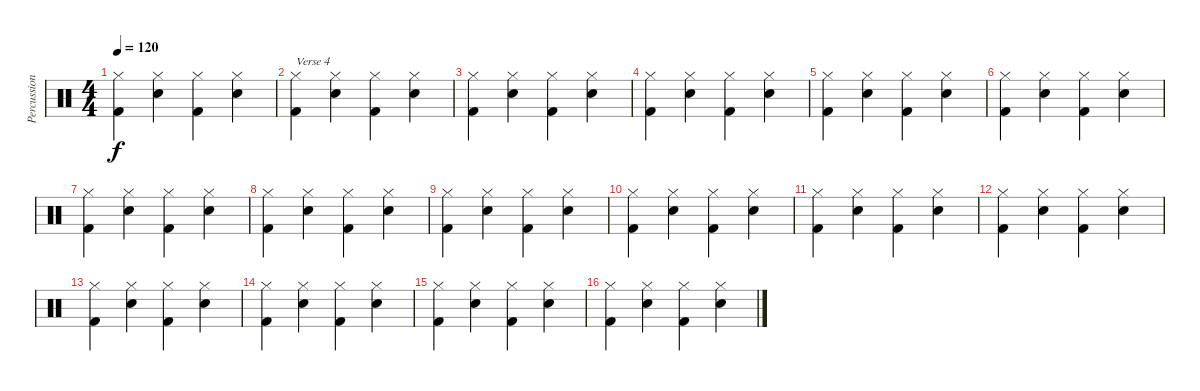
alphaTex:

\track ("Percussions" "Percussion") {instrument percussion}
\staff {score}
\articulation defaults
\ts (4 4)
\tempo 120
\clef neutral
\ks c
("Hi-Hat (closed)" "Kick (hit) 2").4{dy f} ("Hi-Hat (closed)" "Electric Snare (hit)").4 ("Hi-Hat (closed)" "Kick (hit) 2").4 ("Hi-Hat (closed)" "Electric Snare (hit)").4 |
("Hi-Hat (closed)" "Kick (hit) 2").4{txt "Verse 4"} ("Hi-Hat (closed)" "Electric Snare (hit)").4 ("Hi-Hat (closed)" "Kick (hit) 2").4 ("Hi-Hat (closed)" "Electric Snare (hit)").4 |
("Hi-Hat (closed)" "Kick (hit) 2").4 ("Hi-Hat (closed)" "Electric Snare (hit)").4 ("Hi-Hat (closed)" "Kick (hit) 2").4 ("Hi-Hat (closed)" "Electric Snare (hit)").4 |
("Hi-Hat (closed)" "Kick (hit) 2").4 ("Hi-Hat (closed)" "Electric Snare (hit)").4 ("Hi-Hat (closed)" "Kick (hit) 2").4 ("Hi-Hat (closed)" "Electric Snare (hit)").4 |
("Hi-Hat (closed)" "Kick (hit) 2").4 ("Hi-Hat (closed)" "Electric Snare (hit)").4 ("Hi-Hat (closed)" "Kick (hit) 2").4 ("Hi-Hat (closed)" "Electric Snare (hit)").4 |
("Hi-Hat (closed)" "Kick (hit) 2").4 ("Hi-Hat (closed)" "Electric Snare (hit)").4 ("Hi-Hat (closed)" "Kick (hit) 2").4 ("Hi-Hat (closed)" "Electric Snare (hit)").4 |
("Hi-Hat (closed)" "Kick (hit) 2").4 ("Hi-Hat (closed)" "Electric Snare (hit)").4 ("Hi-Hat (closed)" "Kick (hit) 2").4 ("Hi-Hat (closed)" "Electric Snare (hit)").4 |
("Hi-Hat (closed)" "Kick (hit) 2").4 ("Hi-Hat (closed)" "Electric Snare (hit)").4 ("Hi-Hat (closed)" "Kick (hit) 2").4 ("Hi-Hat (closed)" "Electric Snare (hit)").4 |
("Hi-Hat (closed)" "Kick (hit) 2").4 ("Hi-Hat (closed)" "Electric Snare (hit)").4 ("Hi-Hat (closed)" "Kick (hit) 2").4 ("Hi-Hat (closed)" "Electric Snare (hit)").4 |
("Hi-Hat (closed)" "Kick (hit) 2").4 ("Hi-Hat (closed)" "Electric Snare (hit)").4 ("Hi-Hat (closed)" "Kick (hit) 2").4 ("Hi-Hat (closed)" "Electric Snare (hit)").4 |
("Hi-Hat (closed)" "Kick (hit) 2").4 ("Hi-Hat (closed)" "Electric Snare (hit)").4 ("Hi-Hat (closed)" "Kick (hit) 2").4 ("Hi-Hat (closed)" "Electric Snare (hit)").4 |
("Hi-Hat (closed)" "Kick (hit) 2").4 ("Hi-Hat (closed)" "Electric Snare (hit)").4 ("Hi-Hat (closed)" "Kick (hit) 2").4 ("Hi-Hat (closed)" "Electric Snare (hit)").4 |
("Hi-Hat (closed)" "Kick (hit) 2").4 ("Hi-Hat (closed)" "Electric Snare (hit)").4 ("Hi-Hat (closed)" "Kick (hit) 2").4 ("Hi-Hat (closed)" "Electric Snare (hit)").4 |
("Hi-Hat (closed)" "Kick (hit) 2").4 ("Hi-Hat (closed)" "Electric Snare (hit)").4 ("Hi-Hat (closed)" "Kick (hit) 2").4 ("Hi-Hat (closed)" "Electric Snare (hit)").4 |
("Hi-Hat (closed)" "Kick (hit) 2").4 ("Hi-Hat (closed)" "Electric Snare (hit)").4 ("Hi-Hat (closed)" "Kick (hit) 2").4 ("Hi-Hat (closed)" "Electric Snare (hit)").4 |
("Hi-Hat (closed)" "Kick (hit) 2").4 ("Hi-Hat (closed)" "Electric Snare (hit)").4 ("Hi-Hat (closed)" "Kick (hit) 2").4 ("Hi-Hat (closed)" "Electric Snare (hit)").4
